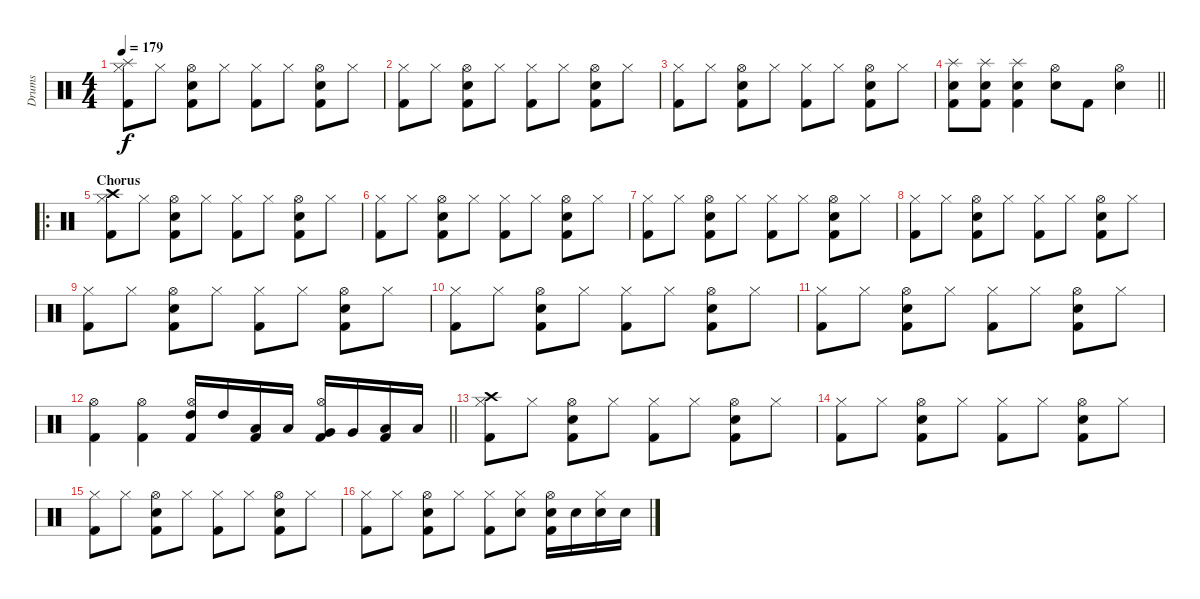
\track ("Drums" "Drums") {instrument percussion}
\staff {score}
\articulation defaults
\ts (4 4)
\tempo 179
\clef neutral
\ks c
("Hi-Hat (closed)" "Splash (hit)" "Kick (hit) 2").8{dy f} "Hi-Hat (closed)".8 ("Hi-Hat (open)" "Snare (hit) 2" "Kick (hit) 2").8 "Hi-Hat (closed)".8 ("Hi-Hat (closed)" "Kick (hit) 2").8 "Hi-Hat (closed)".8 ("Hi-Hat (open)" "Snare (hit) 2" "Kick (hit) 2").8 "Hi-Hat (closed)".8 |
("Hi-Hat (closed)" "Kick (hit) 2").8 "Hi-Hat (closed)".8 ("Hi-Hat (open)" "Snare (hit) 2" "Kick (hit) 2").8 "Hi-Hat (closed)".8 ("Hi-Hat (closed)" "Kick (hit) 2").8 "Hi-Hat (closed)".8 ("Hi-Hat (open)" "Snare (hit) 2" "Kick (hit) 2").8 "Hi-Hat (closed)".8 |
("Hi-Hat (closed)" "Kick (hit) 2").8 "Hi-Hat (closed)".8 ("Hi-Hat (open)" "Snare (hit) 2" "Kick (hit) 2").8 "Hi-Hat (closed)".8 ("Hi-Hat (closed)" "Kick (hit) 2").8 "Hi-Hat (closed)".8 ("Hi-Hat (open)" "Snare (hit) 2" "Kick (hit) 2").8 "Hi-Hat (closed)".8 |
\barLineRight lightlight
("Splash (hit)" "Snare (hit) 2" "Kick (hit) 2").8 ("Splash (hit)" "Snare (hit) 2" "Kick (hit) 2").8 ("Splash (hit)" "Snare (hit) 2" "Kick (hit) 2").4 ("Hi-Hat (open)" "Snare (hit) 2").8 "Kick (hit) 2".8 ("Hi-Hat (open)" "Snare (hit) 2").4 |
\ro
\section ("" "Chorus")
("Hi-Hat (closed)" "Crash high (hit)" "Kick (hit) 2").8 "Hi-Hat (closed)".8 ("Hi-Hat (open)" "Snare (hit) 2" "Kick (hit) 2").8 "Hi-Hat (closed)".8 ("Hi-Hat (closed)" "Kick (hit) 2").8 "Hi-Hat (closed)".8 ("Hi-Hat (open)" "Snare (hit) 2" "Kick (hit) 2").8 "Hi-Hat (closed)".8 |
("Hi-Hat (closed)" "Kick (hit) 2").8 "Hi-Hat (closed)".8 ("Hi-Hat (open)" "Snare (hit) 2" "Kick (hit) 2").8 "Hi-Hat (closed)".8 ("Hi-Hat (closed)" "Kick (hit) 2").8 "Hi-Hat (closed)".8 ("Hi-Hat (open)" "Snare (hit) 2" "Kick (hit) 2").8 "Hi-Hat (closed)".8 |
("Hi-Hat (closed)" "Kick (hit) 2").8 "Hi-Hat (closed)".8 ("Hi-Hat (open)" "Snare (hit) 2" "Kick (hit) 2").8 "Hi-Hat (closed)".8 ("Hi-Hat (closed)" "Kick (hit) 2").8 "Hi-Hat (closed)".8 ("Hi-Hat (open)" "Snare (hit) 2" "Kick (hit) 2").8 "Hi-Hat (closed)".8 |
("Hi-Hat (closed)" "Kick (hit) 2").8 "Hi-Hat (closed)".8 ("Hi-Hat (open)" "Snare (hit) 2" "Kick (hit) 2").8 "Hi-Hat (closed)".8 ("Hi-Hat (closed)" "Kick (hit) 2").8 "Hi-Hat (closed)".8 ("Hi-Hat (open)" "Snare (hit) 2" "Kick (hit) 2").8 "Hi-Hat (closed)".8 |
("Hi-Hat (closed)" "Kick (hit) 2").8 "Hi-Hat (closed)".8 ("Hi-Hat (open)" "Snare (hit) 2" "Kick (hit) 2").8 "Hi-Hat (closed)".8 ("Hi-Hat (closed)" "Kick (hit) 2").8 "Hi-Hat (closed)".8 ("Hi-Hat (open)" "Snare (hit) 2" "Kick (hit) 2").8 "Hi-Hat (closed)".8 |
("Hi-Hat (closed)" "Kick (hit) 2").8 "Hi-Hat (closed)".8 ("Hi-Hat (open)" "Snare (hit) 2" "Kick (hit) 2").8 "Hi-Hat (closed)".8 ("Hi-Hat (closed)" "Kick (hit) 2").8 "Hi-Hat (closed)".8 ("Hi-Hat (open)" "Snare (hit) 2" "Kick (hit) 2").8 "Hi-Hat (closed)".8 |
("Hi-Hat (closed)" "Kick (hit) 2").8 "Hi-Hat (closed)".8 ("Hi-Hat (open)" "Snare (hit) 2" "Kick (hit) 2").8 "Hi-Hat (closed)".8 ("Hi-Hat (closed)" "Kick (hit) 2").8 "Hi-Hat (closed)".8 ("Hi-Hat (open)" "Snare (hit) 2" "Kick (hit) 2").8 "Hi-Hat (closed)".8 |
\barLineRight lightlight
("Hi-Hat (open)" "Kick (hit) 2").4 ("Hi-Hat (open)" "Kick (hit) 2").4 ("Hi-Hat (open)" "High Tom (hit)" "Kick (hit) 2").16 "High Tom (hit)".16 ("Low Tom (hit)" "Kick (hit) 2").16 "Low Tom (hit)".16 ("Hi-Hat (open)" "Very Low Tom (hit)" "Kick (hit) 2").16 "Very Low Tom (hit)".16 ("Low Floor Tom (hit)" "Kick (hit) 2").16 "Low Floor Tom (hit)".16 |
("Hi-Hat (closed)" "Crash high (hit)" "Kick (hit) 2").8 "Hi-Hat (closed)".8 ("Hi-Hat (open)" "Snare (hit) 2" "Kick (hit) 2").8 "Hi-Hat (closed)".8 ("Hi-Hat (closed)" "Kick (hit) 2").8 "Hi-Hat (closed)".8 ("Hi-Hat (open)" "Snare (hit) 2" "Kick (hit) 2").8 "Hi-Hat (closed)".8 |
("Hi-Hat (closed)" "Kick (hit) 2").8 "Hi-Hat (closed)".8 ("Hi-Hat (open)" "Snare (hit) 2" "Kick (hit) 2").8 "Hi-Hat (closed)".8 ("Hi-Hat (closed)" "Kick (hit) 2").8 "Hi-Hat (closed)".8 ("Hi-Hat (open)" "Snare (hit) 2" "Kick (hit) 2").8 "Hi-Hat (closed)".8 |
("Hi-Hat (closed)" "Kick (hit) 2").8 "Hi-Hat (closed)".8 ("Hi-Hat (open)" "Snare (hit) 2" "Kick (hit) 2").8 "Hi-Hat (closed)".8 ("Hi-Hat (closed)" "Kick (hit) 2").8 "Hi-Hat (closed)".8 ("Hi-Hat (open)" "Snare (hit) 2" "Kick (hit) 2").8 "Hi-Hat (closed)".8 |
("Hi-Hat (closed)" "Kick (hit) 2").8 "Hi-Hat (closed)".8 ("Hi-Hat (open)" "Snare (hit) 2" "Kick (hit) 2").8 "Hi-Hat (closed)".8 ("Hi-Hat (closed)" "Kick (hit) 2").8 ("Hi-Hat (closed)" "Snare (hit) 2").8 ("Hi-Hat (open)" "Snare (hit) 2" "Kick (hit) 2").16 "Snare (hit) 2".16 ("Hi-Hat (closed)" "Snare (hit) 2").16 "Snare (hit) 2".16
